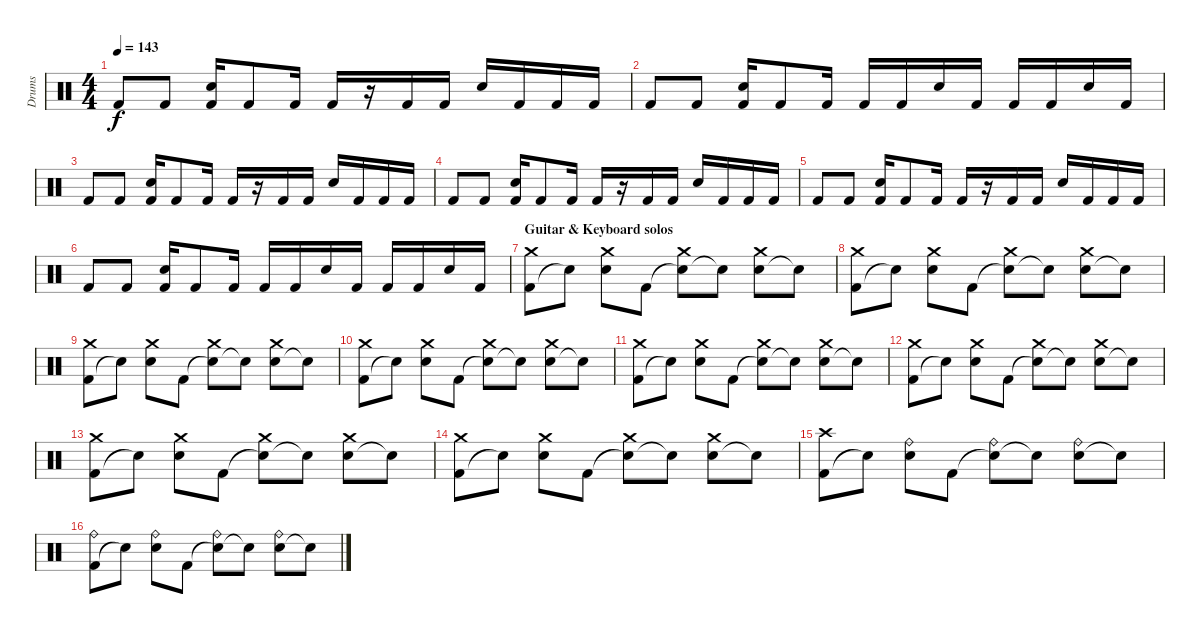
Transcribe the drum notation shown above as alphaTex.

\track ("Drums" "Drums") {instrument percussion}
\staff {score}
\articulation defaults
\ts (4 4)
\tempo 143
\clef neutral
\ks c "Kick (hit) 2".8{dy f} "Kick (hit) 2".8
("Kick (hit) 2" "Snare (hit) 2").16 "Kick (hit) 2".8 "Kick (hit) 2".16 "Kick (hit) 2".16 r.16 "Kick (hit) 2".16 "Kick (hit) 2".16 "Snare (hit) 2".16 "Kick (hit) 2".16 "Kick (hit) 2".16 "Kick (hit) 2".16 |
"Kick (hit) 2".8 "Kick (hit) 2".8 ("Kick (hit) 2" "Snare (hit) 2").16 "Kick (hit) 2".8 "Kick (hit) 2".16 "Kick (hit) 2".16 "Kick (hit) 2".16 "Snare (hit) 2".16 "Kick (hit) 2".16 "Kick (hit) 2".16 "Kick (hit) 2".16 "Snare (hit) 2".16 "Kick (hit) 2".16 |
"Kick (hit) 2".8 "Kick (hit) 2".8 ("Kick (hit) 2" "Snare (hit) 2").16 "Kick (hit) 2".8 "Kick (hit) 2".16 "Kick (hit) 2".16 r.16 "Kick (hit) 2".16 "Kick (hit) 2".16 "Snare (hit) 2".16 "Kick (hit) 2".16 "Kick (hit) 2".16 "Kick (hit) 2".16 |
"Kick (hit) 2".8 "Kick (hit) 2".8 ("Kick (hit) 2" "Snare (hit) 2").16 "Kick (hit) 2".8 "Kick (hit) 2".16 "Kick (hit) 2".16 r.16 "Kick (hit) 2".16 "Kick (hit) 2".16 "Snare (hit) 2".16 "Kick (hit) 2".16 "Kick (hit) 2".16 "Kick (hit) 2".16 |
"Kick (hit) 2".8 "Kick (hit) 2".8 ("Kick (hit) 2" "Snare (hit) 2").16 "Kick (hit) 2".8 "Kick (hit) 2".16 "Kick (hit) 2".16 r.16 "Kick (hit) 2".16 "Kick (hit) 2".16 "Snare (hit) 2".16 "Kick (hit) 2".16 "Kick (hit) 2".16 "Kick (hit) 2".16 |
"Kick (hit) 2".8 "Kick (hit) 2".8 ("Kick (hit) 2" "Snare (hit) 2").16 "Kick (hit) 2".8 "Kick (hit) 2".16 "Kick (hit) 2".16 "Kick (hit) 2".16 "Snare (hit) 2".16 "Kick (hit) 2".16 "Kick (hit) 2".16 "Kick (hit) 2".16 "Snare (hit) 2".16 "Kick (hit) 2".16 |
\section ("" "Guitar & Keyboard solos")
("Kick (hit) 2" "Crash medium (hit)").8 "Snare (hit)"{t}.8 ("Snare (hit) 2" "Crash medium (hit)").8 "Kick (hit) 2".8 ("Snare (hit)"{t} "Crash medium (hit)").8 "Snare (hit)"{t}.8 ("Snare (hit) 2" "Crash medium (hit)").8 "Snare (hit)"{t}.8 |
("Kick (hit) 2" "Crash medium (hit)").8 "Snare (hit)"{t}.8 ("Snare (hit) 2" "Crash medium (hit)").8 "Kick (hit) 2".8 ("Snare (hit)"{t} "Crash medium (hit)").8 "Snare (hit)"{t}.8 ("Snare (hit) 2" "Crash medium (hit)").8 "Snare (hit)"{t}.8 |
("Kick (hit) 2" "Crash medium (hit)").8 "Snare (hit)"{t}.8 ("Snare (hit) 2" "Crash medium (hit)").8 "Kick (hit) 2".8 ("Snare (hit)"{t} "Crash medium (hit)").8 "Snare (hit)"{t}.8 ("Snare (hit) 2" "Crash medium (hit)").8 "Snare (hit)"{t}.8 |
("Kick (hit) 2" "Crash medium (hit)").8 "Snare (hit)"{t}.8 ("Snare (hit) 2" "Crash medium (hit)").8 "Kick (hit) 2".8 ("Snare (hit)"{t} "Crash medium (hit)").8 "Snare (hit)"{t}.8 ("Snare (hit) 2" "Crash medium (hit)").8 "Snare (hit)"{t}.8 |
("Kick (hit) 2" "Crash medium (hit)").8 "Snare (hit)"{t}.8 ("Snare (hit) 2" "Crash medium (hit)").8 "Kick (hit) 2".8 ("Snare (hit)"{t} "Crash medium (hit)").8 "Snare (hit)"{t}.8 ("Snare (hit) 2" "Crash medium (hit)").8 "Snare (hit)"{t}.8 |
("Kick (hit) 2" "Crash medium (hit)").8 "Snare (hit)"{t}.8 ("Snare (hit) 2" "Crash medium (hit)").8 "Kick (hit) 2".8 ("Snare (hit)"{t} "Crash medium (hit)").8 "Snare (hit)"{t}.8 ("Snare (hit) 2" "Crash medium (hit)").8 "Snare (hit)"{t}.8 |
("Kick (hit) 2" "Crash medium (hit)").8 "Snare (hit)"{t}.8 ("Snare (hit) 2" "Crash medium (hit)").8 "Kick (hit) 2".8 ("Snare (hit)"{t} "Crash medium (hit)").8 "Snare (hit)"{t}.8 ("Snare (hit) 2" "Crash medium (hit)").8 "Snare (hit)"{t}.8 |
("Kick (hit) 2" "Crash medium (hit)").8 "Snare (hit)"{t}.8 ("Snare (hit) 2" "Crash medium (hit)").8 "Kick (hit) 2".8 ("Snare (hit)"{t} "Crash medium (hit)").8 "Snare (hit)"{t}.8 ("Snare (hit) 2" "Crash medium (hit)").8 "Snare (hit)"{t}.8 |
("Kick (hit) 2" "Crash high (hit)").8 "Snare (hit)"{t}.8 ("Snare (hit) 2" "Ride (bell)").8 "Kick (hit) 2".8 ("Snare (hit)"{t} "Ride (bell)").8 "Snare (hit)"{t}.8 ("Snare (hit) 2" "Ride (bell)").8 "Snare (hit)"{t}.8 |
("Kick (hit) 2" "Ride (bell)").8 "Snare (hit)"{t}.8 ("Snare (hit) 2" "Ride (bell)").8 "Kick (hit) 2".8 ("Snare (hit)"{t} "Ride (bell)").8 "Snare (hit)"{t}.8 ("Snare (hit) 2" "Ride (bell)").8 "Snare (hit)"{t}.8
